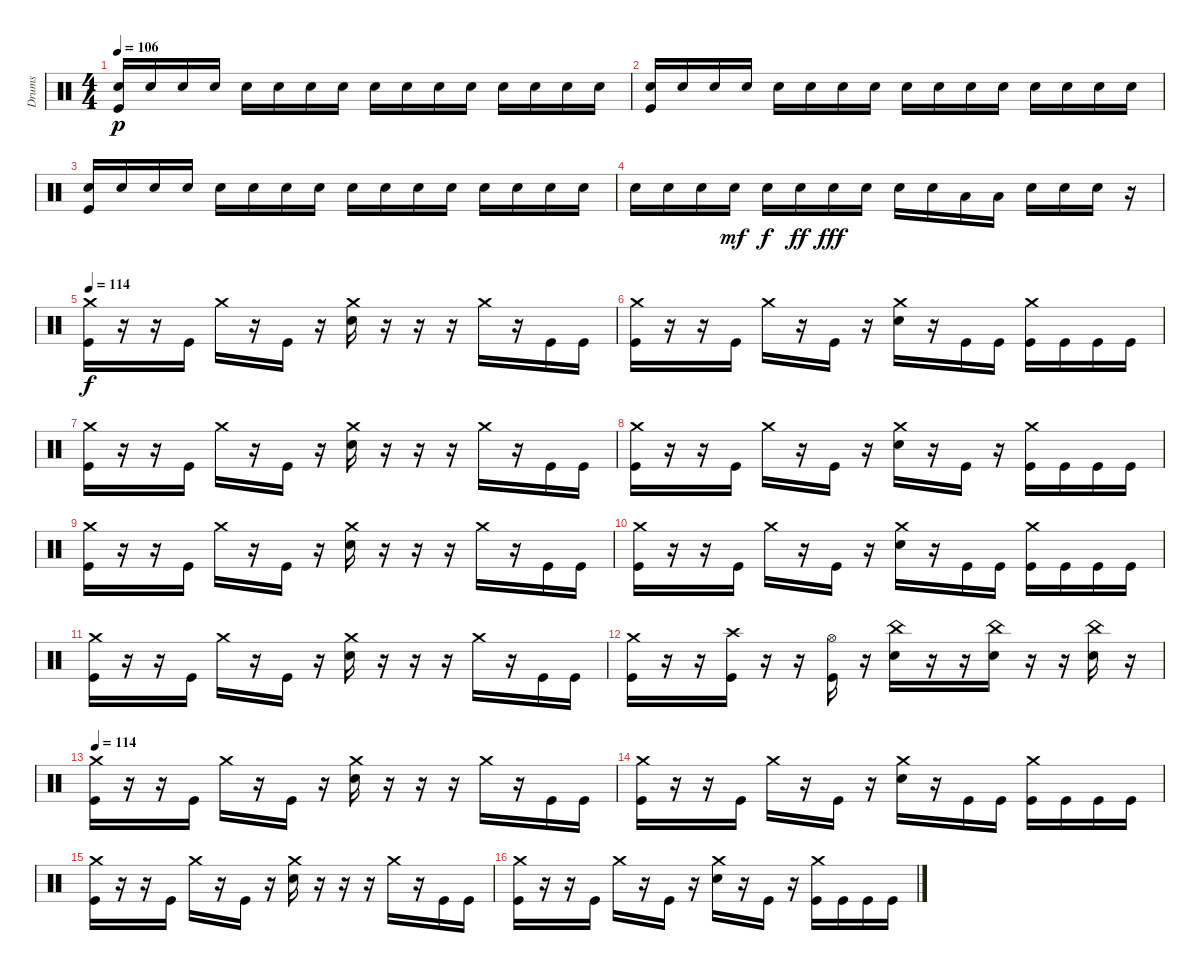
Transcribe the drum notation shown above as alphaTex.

\track ("Drums" "Drums") {instrument percussion}
\staff {score}
\articulation defaults
\ts (4 4)
\tempo 106
\clef neutral
\ks c
("Electric Snare (hit)" "Kick (hit)").16{dy p} "Electric Snare (hit)".16 "Electric Snare (hit)".16 "Electric Snare (hit)".16 "Electric Snare (hit)".16 "Electric Snare (hit)".16 "Electric Snare (hit)".16 "Electric Snare (hit)".16 "Electric Snare (hit)".16 "Electric Snare (hit)".16 "Electric Snare (hit)".16 "Electric Snare (hit)".16 "Electric Snare (hit)".16 "Electric Snare (hit)".16 "Electric Snare (hit)".16 "Electric Snare (hit)".16 |
("Electric Snare (hit)" "Kick (hit)").16 "Electric Snare (hit)".16 "Electric Snare (hit)".16 "Electric Snare (hit)".16 "Electric Snare (hit)".16 "Electric Snare (hit)".16 "Electric Snare (hit)".16 "Electric Snare (hit)".16 "Electric Snare (hit)".16 "Electric Snare (hit)".16 "Electric Snare (hit)".16 "Electric Snare (hit)".16 "Electric Snare (hit)".16 "Electric Snare (hit)".16 "Electric Snare (hit)".16 "Electric Snare (hit)".16 |
("Electric Snare (hit)" "Kick (hit)").16 "Electric Snare (hit)".16 "Electric Snare (hit)".16 "Electric Snare (hit)".16 "Electric Snare (hit)".16 "Electric Snare (hit)".16 "Electric Snare (hit)".16 "Electric Snare (hit)".16 "Electric Snare (hit)".16 "Electric Snare (hit)".16 "Electric Snare (hit)".16 "Electric Snare (hit)".16 "Electric Snare (hit)".16 "Electric Snare (hit)".16 "Electric Snare (hit)".16 "Electric Snare (hit)".16 |
"Electric Snare (hit)".16 "Electric Snare (hit)".16 "Electric Snare (hit)".16 "Electric Snare (hit)".16{dy mf} "Electric Snare (hit)".16{dy f} "Electric Snare (hit)".16{dy ff} "Electric Snare (hit)".16{dy fff} "Electric Snare (hit)".16 "Electric Snare (hit)".16 "Electric Snare (hit)".16 "Low Tom (hit)".16 "Low Tom (hit)".16 "Electric Snare (hit)".16 "Electric Snare (hit)".16 "Electric Snare (hit)".16 r.16 |
\tempo 114
("Crash medium (hit)" "Kick (hit)").16{dy f} r.16 r.16 "Kick (hit)".16 "Crash medium (hit)".16 r.16 "Kick (hit)".16 r.16 ("Crash medium (hit)" "Electric Snare (hit)").16 r.16 r.16 r.16 "Crash medium (hit)".16 r.16 "Kick (hit)".16 "Kick (hit)".16 |
("Crash medium (hit)" "Kick (hit)").16 r.16 r.16 "Kick (hit)".16 "Crash medium (hit)".16 r.16 "Kick (hit)".16 r.16 ("Crash medium (hit)" "Electric Snare (hit)").16 r.16 "Kick (hit)".16 "Kick (hit)".16 ("Crash medium (hit)" "Kick (hit)").16 "Kick (hit)".16 "Kick (hit)".16 "Kick (hit)".16 |
("Crash medium (hit)" "Kick (hit)").16 r.16 r.16 "Kick (hit)".16 "Crash medium (hit)".16 r.16 "Kick (hit)".16 r.16 ("Crash medium (hit)" "Electric Snare (hit)").16 r.16 r.16 r.16 "Crash medium (hit)".16 r.16 "Kick (hit)".16 "Kick (hit)".16 |
("Crash medium (hit)" "Kick (hit)").16 r.16 r.16 "Kick (hit)".16 "Crash medium (hit)".16 r.16 "Kick (hit)".16 r.16 ("Crash medium (hit)" "Electric Snare (hit)").16 r.16 "Kick (hit)".16 r.16 ("Crash medium (hit)" "Kick (hit)").16 "Kick (hit)".16 "Kick (hit)".16 "Kick (hit)".16 |
("Crash medium (hit)" "Kick (hit)").16 r.16 r.16 "Kick (hit)".16 "Crash medium (hit)".16 r.16 "Kick (hit)".16 r.16 ("Crash medium (hit)" "Electric Snare (hit)").16 r.16 r.16 r.16 "Crash medium (hit)".16 r.16 "Kick (hit)".16 "Kick (hit)".16 |
("Crash medium (hit)" "Kick (hit)").16 r.16 r.16 "Kick (hit)".16 "Crash medium (hit)".16 r.16 "Kick (hit)".16 r.16 ("Crash medium (hit)" "Electric Snare (hit)").16 r.16 "Kick (hit)".16 "Kick (hit)".16 ("Crash medium (hit)" "Kick (hit)").16 "Kick (hit)".16 "Kick (hit)".16 "Kick (hit)".16 |
("Crash medium (hit)" "Kick (hit)").16 r.16 r.16 "Kick (hit)".16 "Crash medium (hit)".16 r.16 "Kick (hit)".16 r.16 ("Crash medium (hit)" "Electric Snare (hit)").16 r.16 r.16 r.16 "Crash medium (hit)".16 r.16 "Kick (hit)".16 "Kick (hit)".16 |
("Crash medium (hit)" "Kick (hit)").16 r.16 r.16 ("Crash high (hit)" "Kick (hit)").16 r.16 r.16 ("Hi-Hat (open)" "Kick (hit)").16 r.16 ("China (hit)" "Electric Snare (hit)").16 r.16 r.16 ("China (hit)" "Electric Snare (hit)").16 r.16 r.16 ("China (hit)" "Electric Snare (hit)").16 r.16 |
\tempo 114
("Crash medium (hit)" "Kick (hit)").16 r.16 r.16 "Kick (hit)".16 "Crash medium (hit)".16 r.16 "Kick (hit)".16 r.16 ("Crash medium (hit)" "Electric Snare (hit)").16 r.16 r.16 r.16 "Crash medium (hit)".16 r.16 "Kick (hit)".16 "Kick (hit)".16 |
("Crash medium (hit)" "Kick (hit)").16 r.16 r.16 "Kick (hit)".16 "Crash medium (hit)".16 r.16 "Kick (hit)".16 r.16 ("Crash medium (hit)" "Electric Snare (hit)").16 r.16 "Kick (hit)".16 "Kick (hit)".16 ("Crash medium (hit)" "Kick (hit)").16 "Kick (hit)".16 "Kick (hit)".16 "Kick (hit)".16 |
("Crash medium (hit)" "Kick (hit)").16 r.16 r.16 "Kick (hit)".16 "Crash medium (hit)".16 r.16 "Kick (hit)".16 r.16 ("Crash medium (hit)" "Electric Snare (hit)").16 r.16 r.16 r.16 "Crash medium (hit)".16 r.16 "Kick (hit)".16 "Kick (hit)".16 |
("Crash medium (hit)" "Kick (hit)").16 r.16 r.16 "Kick (hit)".16 "Crash medium (hit)".16 r.16 "Kick (hit)".16 r.16 ("Crash medium (hit)" "Electric Snare (hit)").16 r.16 "Kick (hit)".16 r.16 ("Crash medium (hit)" "Kick (hit)").16 "Kick (hit)".16 "Kick (hit)".16 "Kick (hit)".16
